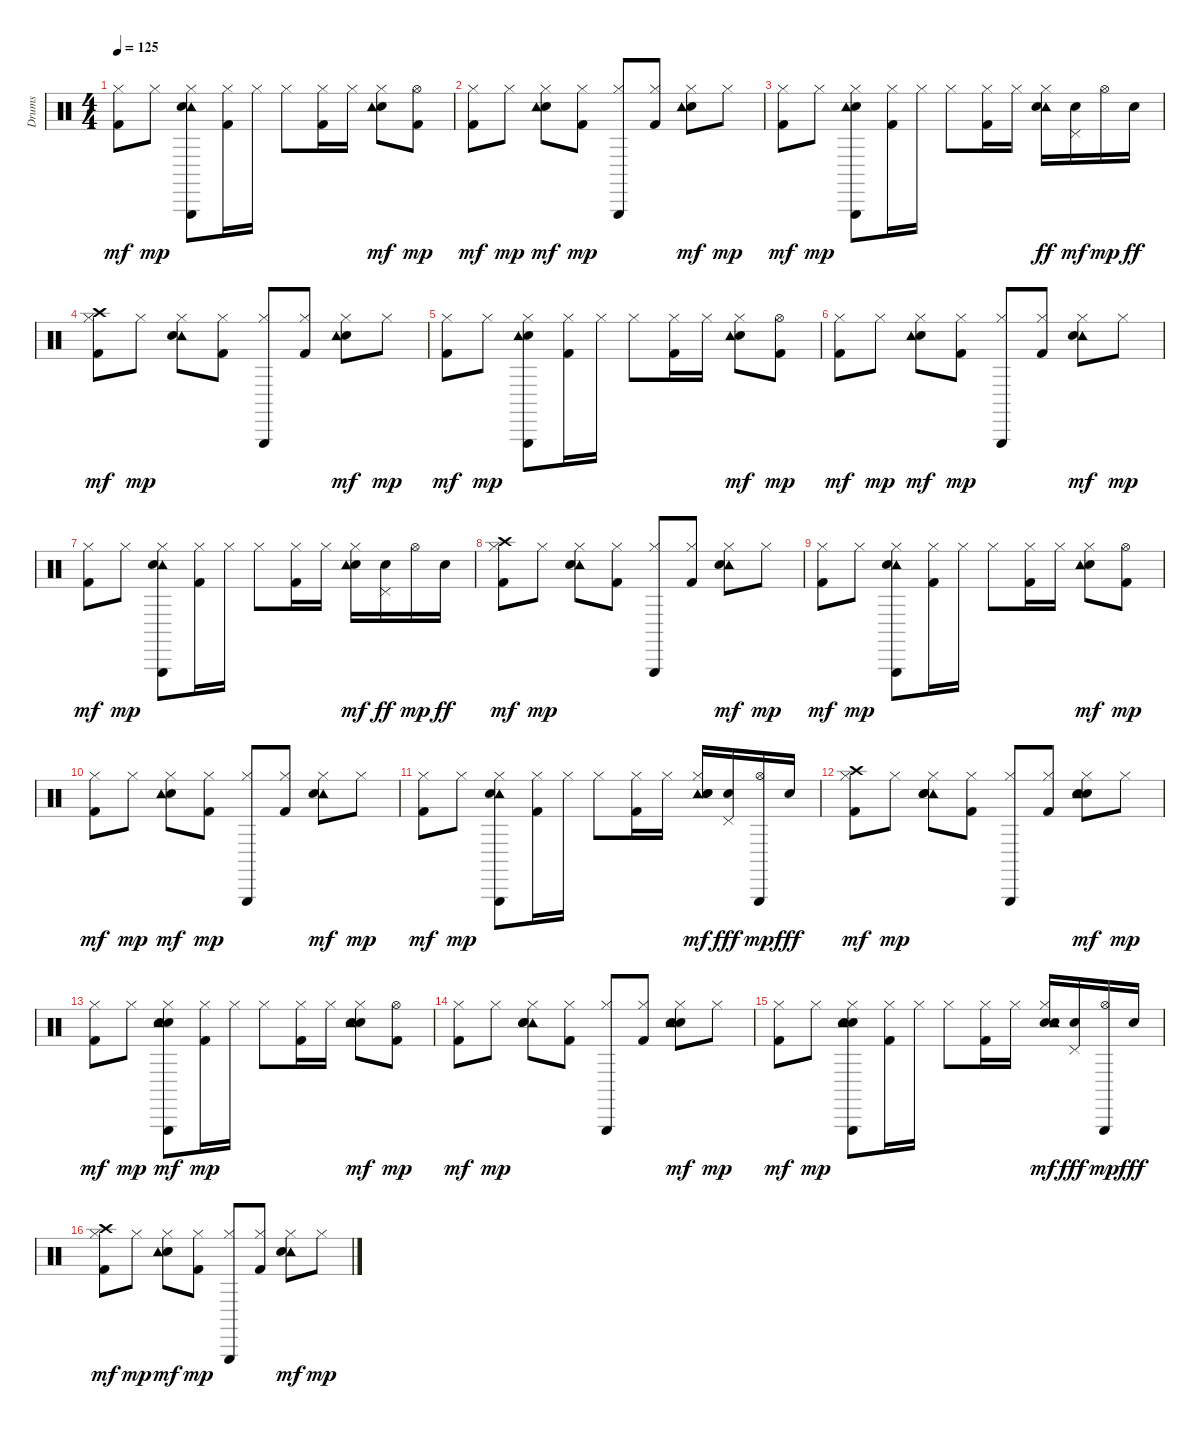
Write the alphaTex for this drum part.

\track ("Drums" "Drums") {instrument percussion}
\staff {score}
\articulation defaults
\ts (4 4)
\tempo 125
\clef neutral
\ks c
("Kick (hit) 2" "Hi-Hat (closed)").8{dy mf} "Hi-Hat (closed)".8{dy mp} ("Triangle (hit)" "Tambourine (hit)" "Electric Snare (hit)" "Hi-Hat (closed)").8 ("Hi-Hat (closed)" "Kick (hit) 2").16 "Hi-Hat (closed)".16 "Hi-Hat (closed)".8 ("Kick (hit) 2" "Hi-Hat (closed)").16 "Hi-Hat (closed)".16 ("Hi-Hat (closed)" "Electric Snare (hit)" "Tambourine (hit)").8{dy mf} ("Hi-Hat (open)" "Kick (hit) 2").8{dy mp} |
("Kick (hit) 2" "Hi-Hat (closed)").8{dy mf} "Hi-Hat (closed)".8{dy mp} ("Hi-Hat (closed)" "Electric Snare (hit)" "Tambourine (hit)").8{dy mf} ("Kick (hit) 2" "Hi-Hat (closed)").8{dy mp} ("Hi-Hat (closed)" "Triangle (hit)").8 ("Kick (hit) 2" "Hi-Hat (closed)").8 ("Hi-Hat (closed)" "Electric Snare (hit)" "Tambourine (hit)").8{dy mf} "Hi-Hat (closed)".8{dy mp} |
("Kick (hit) 2" "Hi-Hat (closed)").8{dy mf} "Hi-Hat (closed)".8{dy mp} ("Hi-Hat (closed)" "Electric Snare (hit)" "Tambourine (hit)" "Triangle (hit)").8 ("Kick (hit) 2" "Hi-Hat (closed)").16 "Hi-Hat (closed)".16 "Hi-Hat (closed)".8 ("Hi-Hat (closed)" "Kick (hit) 2").16 "Hi-Hat (closed)".16 ("Hi-Hat (closed)" "Tambourine (hit)" "Electric Snare (hit)").16{dy ff} ("Electric Snare (hit)" "Pedal Hi-Hat (hit)").16{dy mf} "Hi-Hat (open)".16{dy mp} "Electric Snare (hit)".16{dy ff} |
("Crash high (hit)" "Hi-Hat (closed)" "Kick (hit) 2").8{dy mf} "Hi-Hat (closed)".8{dy mp} ("Tambourine (hit)" "Electric Snare (hit)" "Hi-Hat (closed)").8 ("Kick (hit) 2" "Hi-Hat (closed)").8 ("Triangle (hit)" "Hi-Hat (closed)").8 ("Hi-Hat (closed)" "Kick (hit) 2").8 ("Hi-Hat (closed)" "Electric Snare (hit)" "Tambourine (hit)").8{dy mf} "Hi-Hat (closed)".8{dy mp} |
("Hi-Hat (closed)" "Kick (hit) 2").8{dy mf} "Hi-Hat (closed)".8{dy mp} ("Hi-Hat (closed)" "Electric Snare (hit)" "Tambourine (hit)" "Triangle (hit)").8 ("Hi-Hat (closed)" "Kick (hit) 2").16 "Hi-Hat (closed)".16 "Hi-Hat (closed)".8 ("Hi-Hat (closed)" "Kick (hit) 2").16 "Hi-Hat (closed)".16 ("Hi-Hat (closed)" "Electric Snare (hit)" "Tambourine (hit)").8{dy mf} ("Kick (hit) 2" "Hi-Hat (open)").8{dy mp} |
("Hi-Hat (closed)" "Kick (hit) 2").8{dy mf} "Hi-Hat (closed)".8{dy mp} ("Hi-Hat (closed)" "Electric Snare (hit)" "Tambourine (hit)").8{dy mf} ("Hi-Hat (closed)" "Kick (hit) 2").8{dy mp} ("Triangle (hit)" "Hi-Hat (closed)").8 ("Kick (hit) 2" "Hi-Hat (closed)").8 ("Tambourine (hit)" "Electric Snare (hit)" "Hi-Hat (closed)").8{dy mf} "Hi-Hat (closed)".8{dy mp} |
("Kick (hit) 2" "Hi-Hat (closed)").8{dy mf} "Hi-Hat (closed)".8{dy mp} ("Triangle (hit)" "Tambourine (hit)" "Electric Snare (hit)" "Hi-Hat (closed)").8 ("Hi-Hat (closed)" "Kick (hit) 2").16 "Hi-Hat (closed)".16 "Hi-Hat (closed)".8 ("Kick (hit) 2" "Hi-Hat (closed)").16 "Hi-Hat (closed)".16 ("Electric Snare (hit)" "Tambourine (hit)" "Hi-Hat (closed)").16{dy mf} ("Pedal Hi-Hat (hit)" "Electric Snare (hit)").16{dy ff} "Hi-Hat (open)".16{dy mp} "Electric Snare (hit)".16{dy ff} |
("Hi-Hat (closed)" "Kick (hit) 2" "Crash high (hit)").8{dy mf} "Hi-Hat (closed)".8{dy mp} ("Tambourine (hit)" "Electric Snare (hit)" "Hi-Hat (closed)").8 ("Hi-Hat (closed)" "Kick (hit) 2").8 ("Triangle (hit)" "Hi-Hat (closed)").8 ("Hi-Hat (closed)" "Kick (hit) 2").8 ("Tambourine (hit)" "Electric Snare (hit)" "Hi-Hat (closed)").8{dy mf} "Hi-Hat (closed)".8{dy mp} |
("Hi-Hat (closed)" "Kick (hit) 2").8{dy mf} "Hi-Hat (closed)".8{dy mp} ("Triangle (hit)" "Tambourine (hit)" "Electric Snare (hit)" "Hi-Hat (closed)").8 ("Hi-Hat (closed)" "Kick (hit) 2").16 "Hi-Hat (closed)".16 "Hi-Hat (closed)".8 ("Kick (hit) 2" "Hi-Hat (closed)").16 "Hi-Hat (closed)".16 ("Hi-Hat (closed)" "Electric Snare (hit)" "Tambourine (hit)").8{dy mf} ("Kick (hit) 2" "Hi-Hat (open)").8{dy mp} |
("Hi-Hat (closed)" "Kick (hit) 2").8{dy mf} "Hi-Hat (closed)".8{dy mp} ("Hi-Hat (closed)" "Electric Snare (hit)" "Tambourine (hit)").8{dy mf} ("Hi-Hat (closed)" "Kick (hit) 2").8{dy mp} ("Triangle (hit)" "Hi-Hat (closed)").8 ("Kick (hit) 2" "Hi-Hat (closed)").8 ("Tambourine (hit)" "Electric Snare (hit)" "Hi-Hat (closed)").8{dy mf} "Hi-Hat (closed)".8{dy mp} |
("Kick (hit) 2" "Hi-Hat (closed)").8{dy mf} "Hi-Hat (closed)".8{dy mp} ("Triangle (hit)" "Tambourine (hit)" "Electric Snare (hit)" "Hi-Hat (closed)").8 ("Kick (hit) 2" "Hi-Hat (closed)").16 "Hi-Hat (closed)".16 "Hi-Hat (closed)".8 ("Kick (hit) 2" "Hi-Hat (closed)").16 "Hi-Hat (closed)".16 ("Tambourine (hit)" "Electric Snare (hit)" "Hi-Hat (closed)" "Hand Clap (hit)").16{dy mf} ("Electric Snare (hit)" "Pedal Hi-Hat (hit)").16{dy fff} ("Triangle (hit)" "Hi-Hat (open)").16{dy mp} "Electric Snare (hit)".16{dy fff} |
("Crash high (hit)" "Kick (hit) 2" "Hi-Hat (closed)").8{dy mf} "Hi-Hat (closed)".8{dy mp} ("Tambourine (hit)" "Electric Snare (hit)" "Hi-Hat (closed)" "Hand Clap (hit)").8 ("Kick (hit) 2" "Hi-Hat (closed)").8 ("Triangle (hit)" "Hi-Hat (closed)").8 ("Hi-Hat (closed)" "Kick (hit) 2").8 ("Hand Clap (hit)" "Hi-Hat (closed)" "Electric Snare (hit)" "Tambourine (hit)").8{dy mf} "Hi-Hat (closed)".8{dy mp} |
("Kick (hit) 2" "Hi-Hat (closed)").8{dy mf} "Hi-Hat (closed)".8{dy mp} ("Triangle (hit)" "Hi-Hat (closed)" "Electric Snare (hit)" "Tambourine (hit)" "Hand Clap (hit)").8{dy mf} ("Kick (hit) 2" "Hi-Hat (closed)").16{dy mp} "Hi-Hat (closed)".16 "Hi-Hat (closed)".8 ("Hi-Hat (closed)" "Kick (hit) 2").16 "Hi-Hat (closed)".16 ("Hand Clap (hit)" "Tambourine (hit)" "Electric Snare (hit)" "Hi-Hat (closed)").8{dy mf} ("Hi-Hat (open)" "Kick (hit) 2").8{dy mp} |
("Hi-Hat (closed)" "Kick (hit) 2").8{dy mf} "Hi-Hat (closed)".8{dy mp} ("Tambourine (hit)" "Electric Snare (hit)" "Hi-Hat (closed)" "Hand Clap (hit)").8 ("Hi-Hat (closed)" "Kick (hit) 2").8 ("Hi-Hat (closed)" "Triangle (hit)").8 ("Hi-Hat (closed)" "Kick (hit) 2").8 ("Hand Clap (hit)" "Hi-Hat (closed)" "Electric Snare (hit)" "Tambourine (hit)").8{dy mf} "Hi-Hat (closed)".8{dy mp} |
("Hi-Hat (closed)" "Kick (hit) 2").8{dy mf} "Hi-Hat (closed)".8{dy mp} ("Hand Clap (hit)" "Tambourine (hit)" "Electric Snare (hit)" "Hi-Hat (closed)" "Triangle (hit)").8 ("Hi-Hat (closed)" "Kick (hit) 2").16 "Hi-Hat (closed)".16 "Hi-Hat (closed)".8 ("Kick (hit) 2" "Hi-Hat (closed)").16 "Hi-Hat (closed)".16 ("Hi-Hat (closed)" "Electric Snare (hit)" "Tambourine (hit)" "Hand Clap (hit)").16{dy mf} ("Electric Snare (hit)" "Pedal Hi-Hat (hit)").16{dy fff} ("Hi-Hat (open)" "Triangle (hit)").16{dy mp} "Electric Snare (hit)".16{dy fff} |
("Hi-Hat (closed)" "Kick (hit) 2" "Crash high (hit)").8{dy mf} "Hi-Hat (closed)".8{dy mp} ("Hi-Hat (closed)" "Electric Snare (hit)" "Tambourine (hit)").8{dy mf} ("Hi-Hat (closed)" "Kick (hit) 2").8{dy mp} ("Triangle (hit)" "Hi-Hat (closed)").8 ("Kick (hit) 2" "Hi-Hat (closed)").8 ("Tambourine (hit)" "Electric Snare (hit)" "Hi-Hat (closed)").8{dy mf} "Hi-Hat (closed)".8{dy mp}
